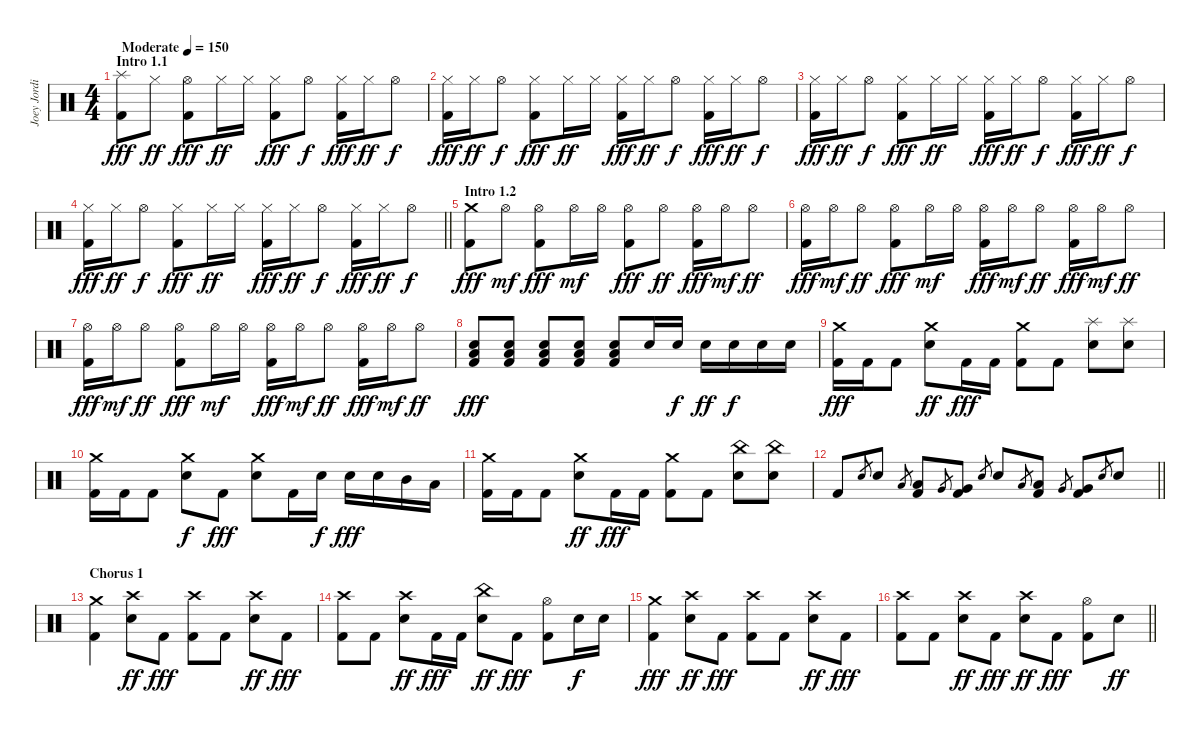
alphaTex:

\track ("Joey Jordison" "Joey Jordi") {instrument percussion}
\staff {score}
\articulation defaults
\ts (4 4)
\section ("" "Intro 1.1")
\tempo (150 "Moderate")
\clef neutral
\ks c
("Splash (hit)" "Kick (hit) 2").8{dy fff} "Hi-Hat (closed)".8{dy ff} ("Hi-Hat (open)" "Kick (hit) 2").8{dy fff} "Hi-Hat (closed)".16{dy ff} "Hi-Hat (closed)".16 ("Hi-Hat (closed)" "Kick (hit) 2").8{dy fff} "Hi-Hat (open)".8{dy f} ("Hi-Hat (closed)" "Kick (hit) 2").16{dy fff} "Hi-Hat (closed)".16{dy ff} "Hi-Hat (open)".8{dy f} |
("Hi-Hat (closed)" "Kick (hit) 2").16{dy fff} "Hi-Hat (closed)".16{dy ff} "Hi-Hat (open)".8{dy f} ("Hi-Hat (closed)" "Kick (hit) 2").8{dy fff} "Hi-Hat (closed)".16{dy ff} "Hi-Hat (closed)".16 ("Hi-Hat (closed)" "Kick (hit) 2").16{dy fff} "Hi-Hat (closed)".16{dy ff} "Hi-Hat (open)".8{dy f} ("Hi-Hat (closed)" "Kick (hit) 2").16{dy fff} "Hi-Hat (closed)".16{dy ff} "Hi-Hat (open)".8{dy f} |
("Hi-Hat (closed)" "Kick (hit) 2").16{dy fff} "Hi-Hat (closed)".16{dy ff} "Hi-Hat (open)".8{dy f} ("Hi-Hat (closed)" "Kick (hit) 2").8{dy fff} "Hi-Hat (closed)".16{dy ff} "Hi-Hat (closed)".16 ("Hi-Hat (closed)" "Kick (hit) 2").16{dy fff} "Hi-Hat (closed)".16{dy ff} "Hi-Hat (open)".8{dy f} ("Hi-Hat (closed)" "Kick (hit) 2").16{dy fff} "Hi-Hat (closed)".16{dy ff} "Hi-Hat (open)".8{dy f} |
\barLineRight lightlight
("Hi-Hat (closed)" "Kick (hit) 2").16{dy fff} "Hi-Hat (closed)".16{dy ff} "Hi-Hat (open)".8{dy f} ("Hi-Hat (closed)" "Kick (hit) 2").8{dy fff} "Hi-Hat (closed)".16{dy ff} "Hi-Hat (closed)".16 ("Hi-Hat (closed)" "Kick (hit) 2").16{dy fff} "Hi-Hat (closed)".16{dy ff} "Hi-Hat (open)".8{dy f} ("Hi-Hat (closed)" "Kick (hit) 2").16{dy fff} "Hi-Hat (closed)".16{dy ff} "Hi-Hat (open)".8{dy f} |
\section ("" "Intro 1.2")
("Crash medium (hit)" "Kick (hit) 2").8{dy fff} "Hi-Hat (open)".8{dy mf} ("Hi-Hat (open)" "Kick (hit) 2").8{dy fff} "Hi-Hat (open)".16{dy mf} "Hi-Hat (open)".16 ("Hi-Hat (open)" "Kick (hit) 2").8{dy fff} "Hi-Hat (open)".8{dy ff} ("Hi-Hat (open)" "Kick (hit) 2").16{dy fff} "Hi-Hat (open)".16{dy mf} "Hi-Hat (open)".8{dy ff} |
("Hi-Hat (open)" "Kick (hit) 2").16{dy fff} "Hi-Hat (open)".16{dy mf} "Hi-Hat (open)".8{dy ff} ("Hi-Hat (open)" "Kick (hit) 2").8{dy fff} "Hi-Hat (open)".16{dy mf} "Hi-Hat (open)".16 ("Hi-Hat (open)" "Kick (hit) 2").16{dy fff} "Hi-Hat (open)".16{dy mf} "Hi-Hat (open)".8{dy ff} ("Hi-Hat (open)" "Kick (hit) 2").16{dy fff} "Hi-Hat (open)".16{dy mf} "Hi-Hat (open)".8{dy ff} |
("Hi-Hat (open)" "Kick (hit) 2").16{dy fff} "Hi-Hat (open)".16{dy mf} "Hi-Hat (open)".8{dy ff} ("Hi-Hat (open)" "Kick (hit) 2").8{dy fff} "Hi-Hat (open)".16{dy mf} "Hi-Hat (open)".16 ("Hi-Hat (open)" "Kick (hit) 2").16{dy fff} "Hi-Hat (open)".16{dy mf} "Hi-Hat (open)".8{dy ff} ("Hi-Hat (open)" "Kick (hit) 2").16{dy fff} "Hi-Hat (open)".16{dy mf} "Hi-Hat (open)".8{dy ff} |
("Electric Snare (hit)" "Low Floor Tom (hit)" "Kick (hit) 2").8{dy fff} ("Electric Snare (hit)" "Low Floor Tom (hit)" "Kick (hit) 2").8 ("Electric Snare (hit)" "Low Floor Tom (hit)" "Kick (hit) 2").8 ("Electric Snare (hit)" "Low Floor Tom (hit)" "Kick (hit) 2").8 ("Electric Snare (hit)" "Low Floor Tom (hit)" "Kick (hit) 2").8 "Electric Snare (hit)".16 "Electric Snare (hit)".16{dy f} "Electric Snare (hit)".16{dy ff} "Electric Snare (hit)".16{dy f} "Electric Snare (hit)".16 "Electric Snare (hit)".16 |
("Crash medium (hit)" "Kick (hit) 2").16{dy fff} "Kick (hit) 2".16 "Kick (hit) 2".8 ("Crash medium (hit)" "Electric Snare (hit)").8{dy ff} "Kick (hit) 2".16{dy fff} "Kick (hit) 2".16 ("Crash medium (hit)" "Kick (hit) 2").8 "Kick (hit) 2".8 ("Splash (hit)" "Electric Snare (hit)").8 ("Splash (hit)" "Electric Snare (hit)").8 |
("Crash medium (hit)" "Kick (hit) 2").16 "Kick (hit) 2".16 "Kick (hit) 2".8 ("Crash medium (hit)" "Electric Snare (hit)").8{dy f} "Kick (hit) 2".8{dy fff} ("Crash medium (hit)" "Electric Snare (hit)").8 "Kick (hit) 2".16 "Electric Snare (hit)".16{dy f} "Electric Snare (hit)".16{dy fff} "Electric Snare (hit)".16 "Mid Tom (hit)".16 "Low Tom (hit)".16 |
("Crash medium (hit)" "Kick (hit) 2").16 "Kick (hit) 2".16 "Kick (hit) 2".8 ("Crash medium (hit)" "Electric Snare (hit)").8{dy ff} "Kick (hit) 2".16{dy fff} "Kick (hit) 2".16 ("Crash medium (hit)" "Kick (hit) 2").8 "Kick (hit) 2".8 ("China (hit)" "Electric Snare (hit)").8 ("China (hit)" "Electric Snare (hit)").8 |
\barLineRight lightlight "Kick (hit) 2".8 "Electric Snare (hit)".8{gr} "Electric Snare (hit)".8 "Low Tom (hit)".8{gr}
("Low Tom (hit)" "Kick (hit) 2").8 "Very Low Tom (hit)".8{gr} ("Very Low Tom (hit)" "Kick (hit) 2").8 "Electric Snare (hit)".8{gr} "Electric Snare (hit)".8 "Low Tom (hit)".8{gr} ("Low Tom (hit)" "Kick (hit) 2").8 "Very Low Tom (hit)".8{gr} ("Very Low Tom (hit)" "Kick (hit) 2").8 "Electric Snare (hit)".8{gr} "Electric Snare (hit)".8 |
\section ("" "Chorus 1")
("Crash medium (hit)" "Kick (hit) 2").4 ("Crash high (hit)" "Electric Snare (hit)").8{dy ff} "Kick (hit) 2".8{dy fff} ("Crash high (hit)" "Kick (hit) 2").8 "Kick (hit) 2".8 ("Crash high (hit)" "Electric Snare (hit)").8{dy ff} "Kick (hit) 2".8{dy fff} |
("Crash high (hit)" "Kick (hit) 2").8 "Kick (hit) 2".8 ("Crash high (hit)" "Electric Snare (hit)").8{dy ff} "Kick (hit) 2".16{dy fff} "Kick (hit) 2".16 ("China (hit)" "Electric Snare (hit)").8{dy ff} "Kick (hit) 2".8{dy fff} ("Hi-Hat (open)" "Kick (hit) 2").8 "Electric Snare (hit)".16{dy f} "Electric Snare (hit)".16 |
("Crash medium (hit)" "Kick (hit) 2").4{dy fff} ("Crash high (hit)" "Electric Snare (hit)").8{dy ff} "Kick (hit) 2".8{dy fff} ("Crash high (hit)" "Kick (hit) 2").8 "Kick (hit) 2".8 ("Crash high (hit)" "Electric Snare (hit)").8{dy ff} "Kick (hit) 2".8{dy fff} |
\barLineRight lightlight
("Crash high (hit)" "Kick (hit) 2").8 "Kick (hit) 2".8 ("Crash high (hit)" "Electric Snare (hit)").8{dy ff} "Kick (hit) 2".8{dy fff} ("Crash high (hit)" "Electric Snare (hit)").8{dy ff} "Kick (hit) 2".8{dy fff} ("Hi-Hat (open)" "Kick (hit) 2").8 "Electric Snare (hit)".8{dy ff}
